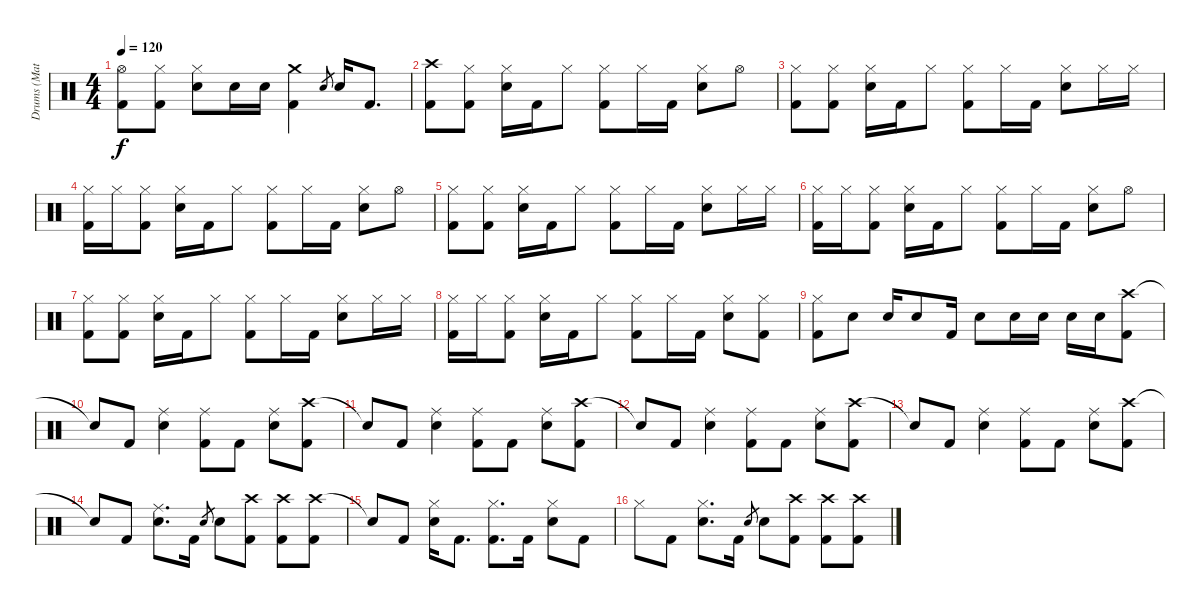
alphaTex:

\track ("Drums (Matt)" "Drums (Mat") {instrument percussion}
\staff {score}
\articulation defaults
\ts (4 4)
\tempo 120
\clef neutral
\ks c
("Hi-Hat (open)" "Kick (hit) 2").8{dy f} ("Hi-Hat (closed)" "Kick (hit) 2").8 ("Hi-Hat (closed)" "Snare (hit) 2").8 "Snare (hit) 2".16 "Snare (hit) 2".16 ("Crash medium (hit)" "Kick (hit) 2").4 "Snare (hit) 2".8{gr} "Snare (hit) 2".16 "Kick (hit) 2".8{d} |
("Crash high (hit)" "Kick (hit) 2").8 ("Hi-Hat (closed)" "Kick (hit) 2").8 ("Hi-Hat (closed)" "Snare (hit) 2").16 "Kick (hit) 2".16 "Hi-Hat (closed)".8 ("Hi-Hat (closed)" "Kick (hit) 2").8 "Hi-Hat (closed)".16 "Kick (hit) 2".16 ("Hi-Hat (closed)" "Snare (hit) 2").8 "Hi-Hat (open)".8 |
("Hi-Hat (closed)" "Kick (hit) 2").8 ("Hi-Hat (closed)" "Kick (hit) 2").8 ("Hi-Hat (closed)" "Snare (hit) 2").16 "Kick (hit) 2".16 "Hi-Hat (closed)".8 ("Hi-Hat (closed)" "Kick (hit) 2").8 "Hi-Hat (closed)".16 "Kick (hit) 2".16 ("Hi-Hat (closed)" "Snare (hit) 2").8 "Hi-Hat (closed)".16 "Hi-Hat (closed)".16 |
("Hi-Hat (closed)" "Kick (hit) 2").16 "Hi-Hat (closed)".16 ("Hi-Hat (closed)" "Kick (hit) 2").8 ("Hi-Hat (closed)" "Snare (hit) 2").16 "Kick (hit) 2".16 "Hi-Hat (closed)".8 ("Hi-Hat (closed)" "Kick (hit) 2").8 "Hi-Hat (closed)".16 "Kick (hit) 2".16 ("Hi-Hat (closed)" "Snare (hit) 2").8 "Hi-Hat (open)".8 |
("Hi-Hat (closed)" "Kick (hit) 2").8 ("Hi-Hat (closed)" "Kick (hit) 2").8 ("Hi-Hat (closed)" "Snare (hit) 2").16 "Kick (hit) 2".16 "Hi-Hat (closed)".8 ("Hi-Hat (closed)" "Kick (hit) 2").8 "Hi-Hat (closed)".16 "Kick (hit) 2".16 ("Hi-Hat (closed)" "Snare (hit) 2").8 "Hi-Hat (closed)".16 "Hi-Hat (closed)".16 |
("Hi-Hat (closed)" "Kick (hit) 2").16 "Hi-Hat (closed)".16 ("Hi-Hat (closed)" "Kick (hit) 2").8 ("Hi-Hat (closed)" "Snare (hit) 2").16 "Kick (hit) 2".16 "Hi-Hat (closed)".8 ("Hi-Hat (closed)" "Kick (hit) 2").8 "Hi-Hat (closed)".16 "Kick (hit) 2".16 ("Hi-Hat (closed)" "Snare (hit) 2").8 "Hi-Hat (open)".8 |
("Hi-Hat (closed)" "Kick (hit) 2").8 ("Hi-Hat (closed)" "Kick (hit) 2").8 ("Hi-Hat (closed)" "Snare (hit) 2").16 "Kick (hit) 2".16 "Hi-Hat (closed)".8 ("Hi-Hat (closed)" "Kick (hit) 2").8 "Hi-Hat (closed)".16 "Kick (hit) 2".16 ("Hi-Hat (closed)" "Snare (hit) 2").8 "Hi-Hat (closed)".16 "Hi-Hat (closed)".16 |
("Hi-Hat (closed)" "Kick (hit) 2").16 "Hi-Hat (closed)".16 ("Hi-Hat (closed)" "Kick (hit) 2").8 ("Hi-Hat (closed)" "Snare (hit) 2").16 "Kick (hit) 2".16 "Hi-Hat (closed)".8 ("Hi-Hat (closed)" "Kick (hit) 2").8 "Hi-Hat (closed)".16 "Kick (hit) 2".16 ("Hi-Hat (closed)" "Snare (hit) 2").8 ("Hi-Hat (closed)" "Kick (hit) 2").8 |
("Hi-Hat (closed)" "Kick (hit) 2").8 "Snare (hit) 2".8 "Snare (hit) 2".16 "Snare (hit) 2".8 "Kick (hit) 2".16 "Snare (hit) 2".8 "Snare (hit) 2".16 "Snare (hit) 2".16 "Snare (hit) 2".16 "Snare (hit) 2".16 ("Crash high (hit)" "Kick (hit) 2").8 |
"Snare (hit)"{t}.8 "Kick (hit) 2".8 ("Ride (middle)" "Snare (hit) 2").4 ("Ride (middle)" "Kick (hit) 2").8 "Kick (hit) 2".8 ("Ride (middle)" "Snare (hit) 2").8 ("Crash high (hit)" "Kick (hit) 2").8 |
"Snare (hit)"{t}.8 "Kick (hit) 2".8 ("Ride (middle)" "Snare (hit) 2").4 ("Ride (middle)" "Kick (hit) 2").8 "Kick (hit) 2".8 ("Ride (middle)" "Snare (hit) 2").8 ("Crash high (hit)" "Kick (hit) 2").8 |
"Snare (hit)"{t}.8 "Kick (hit) 2".8 ("Ride (middle)" "Snare (hit) 2").4 ("Ride (middle)" "Kick (hit) 2").8 "Kick (hit) 2".8 ("Ride (middle)" "Snare (hit) 2").8 ("Crash high (hit)" "Kick (hit) 2").8 |
"Snare (hit)"{t}.8 "Kick (hit) 2".8 ("Ride (middle)" "Snare (hit) 2").4 ("Ride (middle)" "Kick (hit) 2").8 "Kick (hit) 2".8 ("Ride (middle)" "Snare (hit) 2").8 ("Crash high (hit)" "Kick (hit) 2").8 |
"Snare (hit)"{t}.8 "Kick (hit) 2".8 ("Ride (middle)" "Snare (hit) 2").8{d} "Kick (hit) 2".16 "Snare (hit) 2".8{gr} "Snare (hit) 2".8 ("Crash high (hit)" "Kick (hit) 2").8 ("Crash high (hit)" "Kick (hit) 2").8 ("Crash high (hit)" "Kick (hit) 2").8 |
"Snare (hit)"{t}.8 "Kick (hit) 2".8 ("Hi-Hat (closed)" "Snare (hit) 2").16 "Kick (hit) 2".8{d} ("Hi-Hat (closed)" "Kick (hit) 2").8{d} "Kick (hit) 2".16 ("Hi-Hat (closed)" "Snare (hit) 2").8 "Kick (hit) 2".8 |
"Hi-Hat (closed)".8 "Kick (hit) 2".8 ("Hi-Hat (closed)" "Snare (hit) 2").8{d} "Kick (hit) 2".16 "Snare (hit) 2".8{gr} "Snare (hit) 2".8 ("Crash high (hit)" "Kick (hit) 2").8 ("Crash high (hit)" "Kick (hit) 2").8 ("Crash high (hit)" "Kick (hit) 2").8
